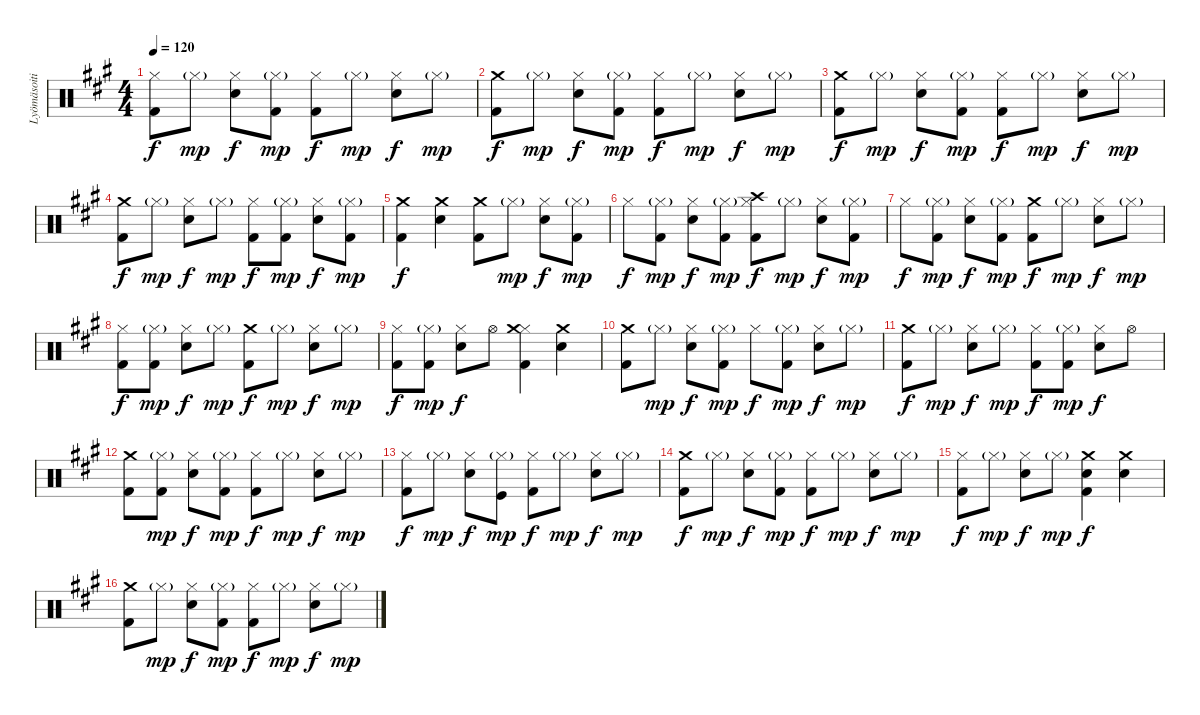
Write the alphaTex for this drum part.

\track ("Lyömäsoitin" "Lyömäsoiti") {instrument percussion}
\staff {score}
\articulation defaults
\ts (4 4)
\tempo 120
\clef neutral
\ks f#minor
("Hi-Hat (closed)" "Kick (hit) 2").8{dy f} "Hi-Hat (closed)"{g}.8{dy mp} ("Hi-Hat (closed)" "Snare (hit) 2").8{dy f} ("Hi-Hat (closed)"{g} "Kick (hit) 2").8{dy mp} ("Hi-Hat (closed)" "Kick (hit) 2").8{dy f} "Hi-Hat (closed)"{g}.8{dy mp} ("Hi-Hat (closed)" "Snare (hit) 2").8{dy f} "Hi-Hat (closed)"{g}.8{dy mp} |
("Kick (hit) 2" "Crash medium (hit)").8{dy f} "Hi-Hat (closed)"{g}.8{dy mp} ("Snare (hit) 2" "Hi-Hat (closed)").8{dy f} ("Hi-Hat (closed)"{g} "Kick (hit) 2").8{dy mp} ("Hi-Hat (closed)" "Kick (hit) 2").8{dy f} "Hi-Hat (closed)"{g}.8{dy mp} ("Hi-Hat (closed)" "Snare (hit) 2").8{dy f} "Hi-Hat (closed)"{g}.8{dy mp} |
("Crash medium (hit)" "Kick (hit) 2").8{dy f} "Hi-Hat (closed)"{g}.8{dy mp} ("Hi-Hat (closed)" "Snare (hit) 2").8{dy f} ("Hi-Hat (closed)"{g} "Kick (hit) 2").8{dy mp} ("Hi-Hat (closed)" "Kick (hit) 2").8{dy f} "Hi-Hat (closed)"{g}.8{dy mp} ("Hi-Hat (closed)" "Snare (hit) 2").8{dy f} "Hi-Hat (closed)"{g}.8{dy mp} |
("Kick (hit) 2" "Crash medium (hit)").8{dy f} "Hi-Hat (closed)"{g}.8{dy mp} ("Hi-Hat (closed)" "Snare (hit) 2").8{dy f} "Hi-Hat (closed)"{g}.8{dy mp} ("Kick (hit) 2" "Hi-Hat (closed)").8{dy f} ("Hi-Hat (closed)"{g} "Kick (hit) 2").8{dy mp} ("Snare (hit) 2" "Hi-Hat (closed)").8{dy f} ("Hi-Hat (closed)"{g} "Kick (hit) 2").8{dy mp} |
("Kick (hit) 2" "Crash medium (hit)").4{dy f} ("Snare (hit) 2" "Crash medium (hit)").4 ("Kick (hit) 2" "Crash medium (hit)").8 "Hi-Hat (closed)"{g}.8{dy mp} ("Hi-Hat (closed)" "Snare (hit) 2").8{dy f} ("Hi-Hat (closed)"{g} "Kick (hit) 2").8{dy mp} |
"Hi-Hat (closed)".8{dy f} ("Kick (hit) 2" "Hi-Hat (closed)"{g}).8{dy mp} ("Hi-Hat (closed)" "Snare (hit) 2").8{dy f} ("Hi-Hat (closed)"{g} "Kick (hit) 2").8{dy mp} ("Hi-Hat (closed)" "Crash high (hit)" "Kick (hit) 2").8{dy f} "Hi-Hat (closed)"{g}.8{dy mp} ("Hi-Hat (closed)" "Snare (hit) 2").8{dy f} ("Hi-Hat (closed)"{g} "Kick (hit) 2").8{dy mp} |
"Hi-Hat (closed)".8{dy f} ("Kick (hit) 2" "Hi-Hat (closed)"{g}).8{dy mp} ("Hi-Hat (closed)" "Snare (hit) 2").8{dy f} ("Hi-Hat (closed)"{g} "Kick (hit) 2").8{dy mp} ("Kick (hit) 2" "Crash medium (hit)").8{dy f} "Hi-Hat (closed)"{g}.8{dy mp} ("Hi-Hat (closed)" "Snare (hit) 2").8{dy f} "Hi-Hat (closed)"{g}.8{dy mp} |
("Hi-Hat (closed)" "Kick (hit) 2").8{dy f} ("Hi-Hat (closed)"{g} "Kick (hit) 2").8{dy mp} ("Hi-Hat (closed)" "Snare (hit) 2").8{dy f} "Hi-Hat (closed)"{g}.8{dy mp} ("Kick (hit) 2" "Crash medium (hit)").8{dy f} "Hi-Hat (closed)"{g}.8{dy mp} ("Hi-Hat (closed)" "Snare (hit) 2").8{dy f} "Hi-Hat (closed)"{g}.8{dy mp} |
("Kick (hit) 2" "Hi-Hat (closed)").8{dy f} ("Hi-Hat (closed)"{g} "Kick (hit) 2").8{dy mp} ("Hi-Hat (closed)" "Snare (hit) 2").8{dy f} "Hi-Hat (open)".8 ("Hi-Hat (closed)" "Kick (hit) 2" "Crash medium (hit)").4 ("Snare (hit) 2" "Crash medium (hit)").4 |
("Kick (hit) 2" "Crash medium (hit)").8 "Hi-Hat (closed)"{g}.8{dy mp} ("Hi-Hat (closed)" "Snare (hit) 2").8{dy f} ("Hi-Hat (closed)"{g} "Kick (hit) 2").8{dy mp} "Hi-Hat (closed)".8{dy f} ("Hi-Hat (closed)"{g} "Kick (hit) 2").8{dy mp} ("Hi-Hat (closed)" "Snare (hit) 2").8{dy f} "Hi-Hat (closed)"{g}.8{dy mp} |
("Kick (hit) 2" "Crash medium (hit)").8{dy f} "Hi-Hat (closed)"{g}.8{dy mp} ("Hi-Hat (closed)" "Snare (hit) 2").8{dy f} "Hi-Hat (closed)"{g}.8{dy mp} ("Hi-Hat (closed)" "Kick (hit) 2").8{dy f} ("Hi-Hat (closed)"{g} "Kick (hit) 2").8{dy mp} ("Hi-Hat (closed)" "Snare (hit) 2").8{dy f} "Hi-Hat (open)".8 |
("Kick (hit) 2" "Crash medium (hit)").8 ("Kick (hit) 2" "Hi-Hat (closed)"{g}).8{dy mp} ("Snare (hit) 2" "Hi-Hat (closed)").8{dy f} ("Hi-Hat (closed)"{g} "Kick (hit) 2").8{dy mp} ("Hi-Hat (closed)" "Kick (hit) 2").8{dy f} "Hi-Hat (closed)"{g}.8{dy mp} ("Hi-Hat (closed)" "Snare (hit) 2").8{dy f} "Hi-Hat (closed)"{g}.8{dy mp} |
("Hi-Hat (closed)" "Kick (hit) 2").8{dy f} "Hi-Hat (closed)"{g}.8{dy mp} ("Hi-Hat (closed)" "Snare (hit) 2").8{dy f} ("Hi-Hat (closed)"{g} "Kick (hit)").8{dy mp} ("Hi-Hat (closed)" "Kick (hit) 2").8{dy f} "Hi-Hat (closed)"{g}.8{dy mp} ("Hi-Hat (closed)" "Snare (hit) 2").8{dy f} "Hi-Hat (closed)"{g}.8{dy mp} |
("Kick (hit) 2" "Crash medium (hit)").8{dy f} "Hi-Hat (closed)"{g}.8{dy mp} ("Hi-Hat (closed)" "Snare (hit) 2").8{dy f} ("Hi-Hat (closed)"{g} "Kick (hit) 2").8{dy mp} ("Hi-Hat (closed)" "Kick (hit) 2").8{dy f} "Hi-Hat (closed)"{g}.8{dy mp} ("Hi-Hat (closed)" "Snare (hit) 2").8{dy f} "Hi-Hat (closed)"{g}.8{dy mp} |
("Kick (hit) 2" "Hi-Hat (closed)").8{dy f} "Hi-Hat (closed)"{g}.8{dy mp} ("Hi-Hat (closed)" "Snare (hit) 2").8{dy f} "Hi-Hat (closed)"{g}.8{dy mp} ("Snare (hit) 2" "Crash medium (hit)" "Kick (hit) 2").4{dy f} ("Snare (hit) 2" "Crash medium (hit)").4 |
("Kick (hit) 2" "Crash medium (hit)").8 "Hi-Hat (closed)"{g}.8{dy mp} ("Hi-Hat (closed)" "Snare (hit) 2").8{dy f} ("Hi-Hat (closed)"{g} "Kick (hit) 2").8{dy mp} ("Hi-Hat (closed)" "Kick (hit) 2").8{dy f} "Hi-Hat (closed)"{g}.8{dy mp} ("Hi-Hat (closed)" "Snare (hit) 2").8{dy f} "Hi-Hat (closed)"{g}.8{dy mp}
